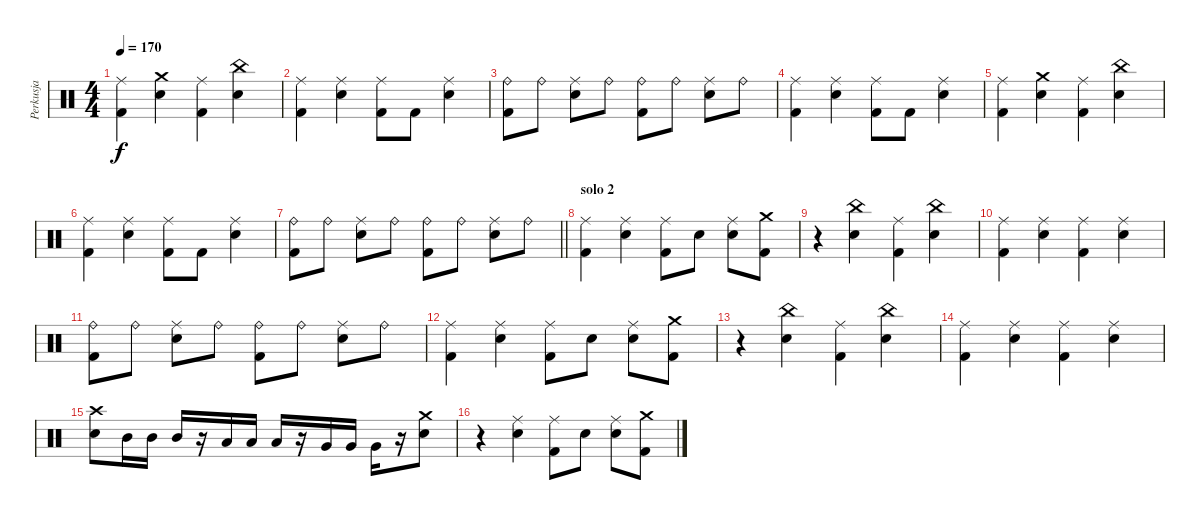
\track ("Perkusja" "Perkusja") {instrument percussion}
\staff {score}
\articulation defaults
\ts (4 4)
\tempo 170
\clef neutral
\ks c
("Ride (middle)" "Kick (hit) 2").4{dy f} ("Crash medium (hit)" "Snare (hit) 2").4 ("Ride (middle)" "Kick (hit) 2").4 ("China (hit)" "Snare (hit) 2").4 |
("Ride (middle)" "Kick (hit) 2").4 ("Ride (middle)" "Snare (hit) 2").4 ("Ride (middle)" "Kick (hit) 2").8 "Kick (hit) 2".8 ("Ride (middle)" "Snare (hit) 2").4 |
("Ride (bell)" "Kick (hit) 2").8 "Ride (bell)".8 ("Ride (middle)" "Snare (hit) 2").8 "Ride (bell)".8 ("Ride (bell)" "Kick (hit) 2").8 "Ride (bell)".8 ("Ride (middle)" "Snare (hit) 2").8 "Ride (bell)".8 |
("Ride (middle)" "Kick (hit) 2").4 ("Ride (middle)" "Snare (hit) 2").4 ("Ride (middle)" "Kick (hit) 2").8 "Kick (hit) 2".8 ("Ride (middle)" "Snare (hit) 2").4 |
("Ride (middle)" "Kick (hit) 2").4 ("Crash medium (hit)" "Snare (hit) 2").4 ("Ride (middle)" "Kick (hit) 2").4 ("China (hit)" "Snare (hit) 2").4 |
("Ride (middle)" "Kick (hit) 2").4 ("Ride (middle)" "Snare (hit) 2").4 ("Ride (middle)" "Kick (hit) 2").8 "Kick (hit) 2".8 ("Ride (middle)" "Snare (hit) 2").4 |
\barLineRight lightlight
("Ride (bell)" "Kick (hit) 2").8 "Ride (bell)".8 ("Ride (middle)" "Snare (hit) 2").8 "Ride (bell)".8 ("Ride (bell)" "Kick (hit) 2").8 "Ride (bell)".8 ("Ride (middle)" "Snare (hit) 2").8 "Ride (bell)".8 |
\section ("" "solo 2")
("Ride (middle)" "Kick (hit) 2").4 ("Ride (middle)" "Snare (hit) 2").4 ("Ride (middle)" "Kick (hit) 2").8 "Snare (hit) 2".8 ("Ride (middle)" "Snare (hit) 2").8 ("Crash medium (hit)" "Kick (hit) 2").8 |
r.4 ("China (hit)" "Snare (hit) 2").4 ("Ride (middle)" "Kick (hit) 2").4 ("China (hit)" "Snare (hit) 2").4 |
("Ride (middle)" "Kick (hit) 2").4 ("Ride (middle)" "Snare (hit) 2").4 ("Ride (middle)" "Kick (hit) 2").4 ("Ride (middle)" "Snare (hit) 2").4 |
("Ride (bell)" "Kick (hit) 2").8 "Ride (bell)".8 ("Ride (middle)" "Snare (hit) 2").8 "Ride (bell)".8 ("Ride (bell)" "Kick (hit) 2").8 "Ride (bell)".8 ("Ride (middle)" "Snare (hit) 2").8 "Ride (bell)".8 |
("Ride (middle)" "Kick (hit) 2").4 ("Ride (middle)" "Snare (hit) 2").4 ("Ride (middle)" "Kick (hit) 2").8 "Snare (hit) 2".8 ("Ride (middle)" "Snare (hit) 2").8 ("Crash medium (hit)" "Kick (hit) 2").8 |
r.4 ("China (hit)" "Snare (hit) 2").4 ("Ride (middle)" "Kick (hit) 2").4 ("China (hit)" "Snare (hit) 2").4 |
("Ride (middle)" "Kick (hit) 2").4 ("Ride (middle)" "Snare (hit) 2").4 ("Ride (middle)" "Kick (hit) 2").4 ("Ride (middle)" "Snare (hit) 2").4 |
("Snare (hit) 2" "Crash high (hit)").8 "Mid Tom (hit)".16 "Mid Tom (hit)".16 "Mid Tom (hit)".16 r.16 "Low Tom (hit)".16 "Low Tom (hit)".16 "Low Tom (hit)".16 r.16 "Very Low Tom (hit)".16 "Very Low Tom (hit)".16 "Very Low Tom (hit)".16 r.16 ("Snare (hit) 2" "Crash medium (hit)").8 |
r.4 ("Ride (middle)" "Snare (hit) 2").4 ("Ride (middle)" "Kick (hit) 2").8 "Snare (hit) 2".8 ("Ride (middle)" "Snare (hit) 2").8 ("Crash medium (hit)" "Kick (hit) 2").8
